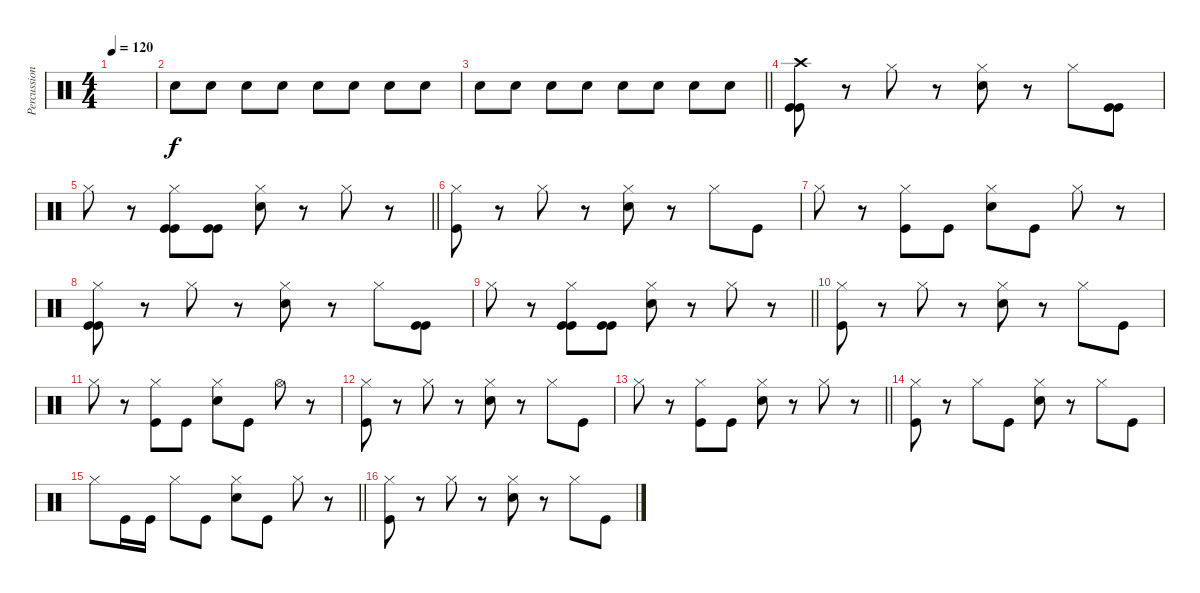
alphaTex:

\track ("Percussion" "Percussion") {instrument percussion}
\staff {score}
\articulation defaults
\ts (4 4)
\tempo 120
\clef neutral
\ks c
|
"Electric Snare (hit)".8 "Electric Snare (hit)".8 "Electric Snare (hit)".8 "Electric Snare (hit)".8 "Electric Snare (hit)".8 "Electric Snare (hit)".8 "Electric Snare (hit)".8 "Electric Snare (hit)".8 |
\barLineRight lightlight "Electric Snare (hit)".8 "Electric Snare (hit)".8 "Electric Snare (hit)".8 "Electric Snare (hit)".8 "Electric Snare (hit)".8 "Electric Snare (hit)".8 "Electric Snare (hit)".8 "Electric Snare (hit)".8
|
("Crash high (hit)" "Kick (hit)" "Kick (hit)").8 r.8 "Hi-Hat (closed)".8 r.8 ("Hi-Hat (closed)" "Electric Snare (hit)").8 r.8 "Hi-Hat (closed)".8 ("Kick (hit)" "Kick (hit)").8 |
\barLineRight lightlight "Hi-Hat (closed)".8
r.8 ("Hi-Hat (closed)" "Kick (hit)" "Kick (hit)").8 ("Kick (hit)" "Kick (hit)").8 ("Hi-Hat (closed)" "Electric Snare (hit)").8 r.8 "Hi-Hat (closed)".8 r.8 |
("Hi-Hat (closed)" "Kick (hit)").8 r.8 "Hi-Hat (closed)".8 r.8 ("Hi-Hat (closed)" "Electric Snare (hit)").8 r.8 "Hi-Hat (closed)".8 "Kick (hit)".8 |
"Hi-Hat (closed)".8 r.8 ("Hi-Hat (closed)" "Kick (hit)").8 "Kick (hit)".8 ("Hi-Hat (closed)" "Electric Snare (hit)").8 "Kick (hit)".8 "Hi-Hat (closed)".8 r.8 |
("Hi-Hat (closed)" "Kick (hit)" "Kick (hit)").8 r.8 "Hi-Hat (closed)".8 r.8 ("Hi-Hat (closed)" "Electric Snare (hit)").8 r.8 "Hi-Hat (closed)".8 ("Kick (hit)" "Kick (hit)").8 |
\barLineRight lightlight "Hi-Hat (closed)".8
r.8 ("Hi-Hat (closed)" "Kick (hit)" "Kick (hit)").8 ("Kick (hit)" "Kick (hit)").8 ("Hi-Hat (closed)" "Electric Snare (hit)").8 r.8 "Hi-Hat (closed)".8 r.8 |
("Hi-Hat (closed)" "Kick (hit)").8 r.8 "Hi-Hat (closed)".8 r.8 ("Hi-Hat (closed)" "Electric Snare (hit)").8 r.8 "Hi-Hat (closed)".8 "Kick (hit)".8 |
"Hi-Hat (closed)".8 r.8 ("Hi-Hat (closed)" "Kick (hit)").8 "Kick (hit)".8 ("Hi-Hat (closed)" "Electric Snare (hit)").8 "Kick (hit)".8 "Hi-Hat (open)".8 r.8 |
("Hi-Hat (closed)" "Kick (hit)").8 r.8 "Hi-Hat (closed)".8 r.8 ("Hi-Hat (closed)" "Electric Snare (hit)").8 r.8 "Hi-Hat (closed)".8 "Kick (hit)".8 |
\barLineRight lightlight "Hi-Hat (closed)".8
r.8 ("Hi-Hat (closed)" "Kick (hit)").8 "Kick (hit)".8 ("Hi-Hat (closed)" "Electric Snare (hit)").8 r.8 "Hi-Hat (closed)".8 r.8 |
("Hi-Hat (closed)" "Kick (hit)").8 r.8 "Hi-Hat (closed)".8 "Kick (hit)".8 ("Hi-Hat (closed)" "Electric Snare (hit)").8 r.8 "Hi-Hat (closed)".8 "Kick (hit)".8 |
\barLineRight lightlight "Hi-Hat (closed)".8 "Kick (hit)".16 "Kick (hit)".16 "Hi-Hat (closed)".8 "Kick (hit)".8
("Hi-Hat (closed)" "Electric Snare (hit)").8 "Kick (hit)".8 "Hi-Hat (closed)".8 r.8 |
("Hi-Hat (closed)" "Kick (hit)").8 r.8 "Hi-Hat (closed)".8 r.8 ("Hi-Hat (closed)" "Electric Snare (hit)").8 r.8 "Hi-Hat (closed)".8 "Kick (hit)".8
